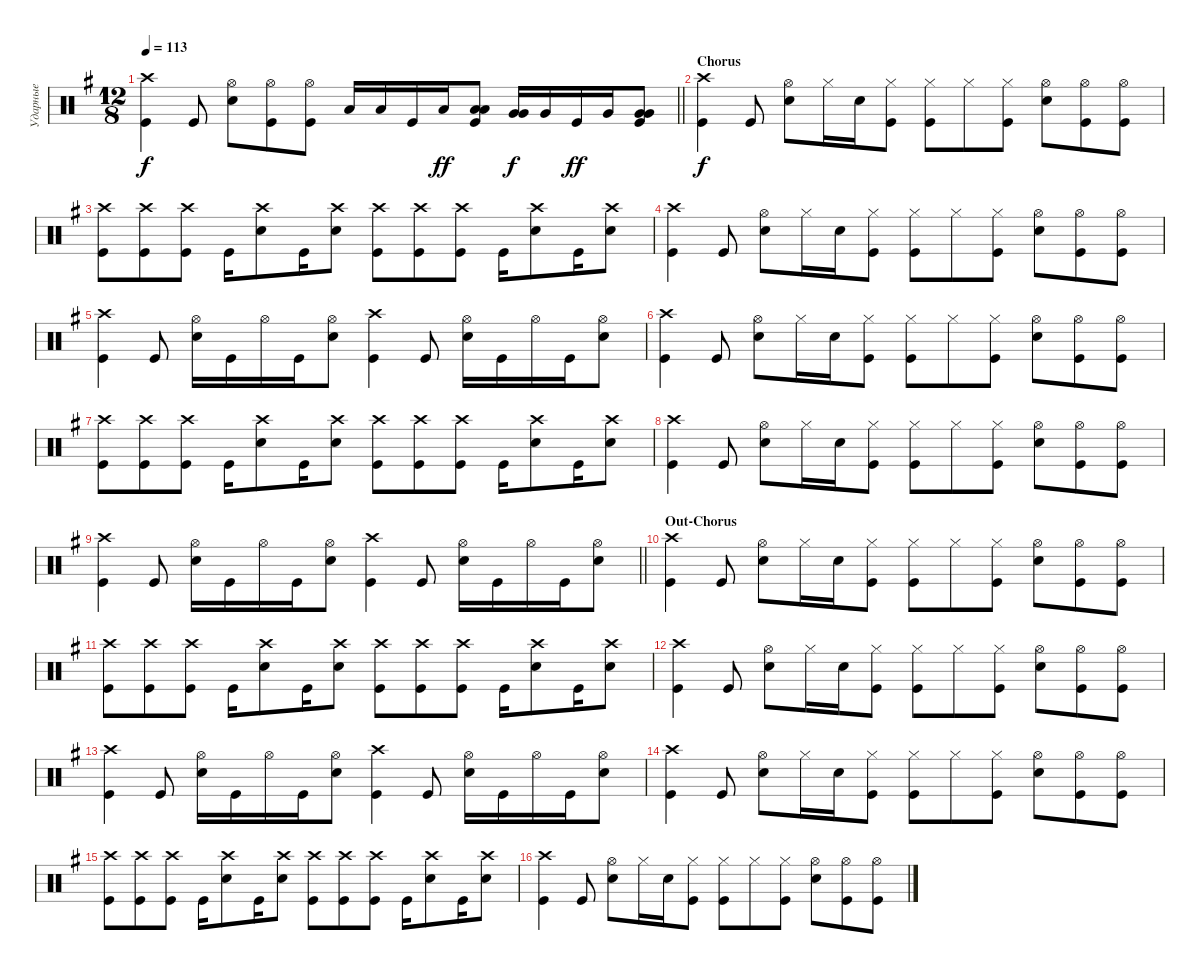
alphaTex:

\track ("Ударные" "Ударные") {instrument percussion}
\staff {score}
\articulation defaults
\ts (12 8)
\tempo 113
\clef neutral
\barLineRight lightlight
\ks eminor
("Kick (hit)" "Crash high (hit)").4{dy f} "Kick (hit)".8 ("Snare (hit) 2" "Hi-Hat (open)").8 ("Kick (hit)" "Hi-Hat (open)").8 ("Kick (hit)" "Hi-Hat (open)").8 "Low Tom (hit)".16 "Low Tom (hit)".16 "Kick (hit)".16 "Low Tom (hit)".16{dy ff} ("Low Tom (hit)" "Low Tom (hit)" "Kick (hit)").8{bd 120} ("Very Low Tom (hit)" "Very Low Tom (hit)").16{bd 120 dy f} "Very Low Tom (hit)".16 "Kick (hit)".16{dy ff} "Very Low Tom (hit)".16 ("Very Low Tom (hit)" "Very Low Tom (hit)" "Kick (hit)").8{bd 120} |
\section ("" "Chorus")
("Kick (hit)" "Crash high (hit)").4{dy f} "Kick (hit)".8 ("Snare (hit) 2" "Hi-Hat (open)").8 "Hi-Hat (closed)".16 "Snare (hit) 2".16 ("Kick (hit)" "Hi-Hat (closed)").8 ("Kick (hit)" "Hi-Hat (closed)").8 "Hi-Hat (closed)".8 ("Hi-Hat (closed)" "Kick (hit)").8 ("Snare (hit) 2" "Hi-Hat (open)").8 ("Hi-Hat (open)" "Kick (hit)").8 ("Hi-Hat (open)" "Kick (hit)").8 |
("Kick (hit)" "Crash high (hit)").8 ("Kick (hit)" "Crash high (hit)").8 ("Kick (hit)" "Crash high (hit)").8 "Kick (hit)".16 ("Snare (hit) 2" "Crash high (hit)").8 "Kick (hit)".16 ("Snare (hit) 2" "Crash high (hit)").8 ("Kick (hit)" "Crash high (hit)").8 ("Kick (hit)" "Crash high (hit)").8 ("Kick (hit)" "Crash high (hit)").8 "Kick (hit)".16 ("Snare (hit) 2" "Crash high (hit)").8 "Kick (hit)".16 ("Snare (hit) 2" "Crash high (hit)").8 |
("Kick (hit)" "Crash high (hit)").4 "Kick (hit)".8 ("Snare (hit) 2" "Hi-Hat (open)").8 "Hi-Hat (closed)".16 "Snare (hit) 2".16 ("Kick (hit)" "Hi-Hat (closed)").8 ("Kick (hit)" "Hi-Hat (closed)").8 "Hi-Hat (closed)".8 ("Hi-Hat (closed)" "Kick (hit)").8 ("Snare (hit) 2" "Hi-Hat (open)").8 ("Hi-Hat (open)" "Kick (hit)").8 ("Hi-Hat (open)" "Kick (hit)").8 |
("Kick (hit)" "Crash high (hit)").4 "Kick (hit)".8 ("Snare (hit) 2" "Hi-Hat (open)").16 "Kick (hit)".16 "Hi-Hat (open)".16 "Kick (hit)".16 ("Hi-Hat (open)" "Snare (hit) 2").8 ("Kick (hit)" "Crash high (hit)").4 "Kick (hit)".8 ("Snare (hit) 2" "Hi-Hat (open)").16 "Kick (hit)".16 "Hi-Hat (open)".16 "Kick (hit)".16 ("Hi-Hat (open)" "Snare (hit) 2").8 |
("Kick (hit)" "Crash high (hit)").4 "Kick (hit)".8 ("Snare (hit) 2" "Hi-Hat (open)").8 "Hi-Hat (closed)".16 "Snare (hit) 2".16 ("Kick (hit)" "Hi-Hat (closed)").8 ("Kick (hit)" "Hi-Hat (closed)").8 "Hi-Hat (closed)".8 ("Hi-Hat (closed)" "Kick (hit)").8 ("Snare (hit) 2" "Hi-Hat (open)").8 ("Hi-Hat (open)" "Kick (hit)").8 ("Hi-Hat (open)" "Kick (hit)").8 |
("Kick (hit)" "Crash high (hit)").8 ("Kick (hit)" "Crash high (hit)").8 ("Kick (hit)" "Crash high (hit)").8 "Kick (hit)".16 ("Snare (hit) 2" "Crash high (hit)").8 "Kick (hit)".16 ("Snare (hit) 2" "Crash high (hit)").8 ("Kick (hit)" "Crash high (hit)").8 ("Kick (hit)" "Crash high (hit)").8 ("Kick (hit)" "Crash high (hit)").8 "Kick (hit)".16 ("Snare (hit) 2" "Crash high (hit)").8 "Kick (hit)".16 ("Snare (hit) 2" "Crash high (hit)").8 |
("Kick (hit)" "Crash high (hit)").4 "Kick (hit)".8 ("Snare (hit) 2" "Hi-Hat (open)").8 "Hi-Hat (closed)".16 "Snare (hit) 2".16 ("Kick (hit)" "Hi-Hat (closed)").8 ("Kick (hit)" "Hi-Hat (closed)").8 "Hi-Hat (closed)".8 ("Hi-Hat (closed)" "Kick (hit)").8 ("Snare (hit) 2" "Hi-Hat (open)").8 ("Hi-Hat (open)" "Kick (hit)").8 ("Hi-Hat (open)" "Kick (hit)").8 |
\barLineRight lightlight
("Kick (hit)" "Crash high (hit)").4 "Kick (hit)".8 ("Snare (hit) 2" "Hi-Hat (open)").16 "Kick (hit)".16 "Hi-Hat (open)".16 "Kick (hit)".16 ("Hi-Hat (open)" "Snare (hit) 2").8 ("Kick (hit)" "Crash high (hit)").4 "Kick (hit)".8 ("Snare (hit) 2" "Hi-Hat (open)").16 "Kick (hit)".16 "Hi-Hat (open)".16 "Kick (hit)".16 ("Hi-Hat (open)" "Snare (hit) 2").8 |
\section ("" "Out-Chorus")
("Kick (hit)" "Crash high (hit)").4 "Kick (hit)".8 ("Snare (hit) 2" "Hi-Hat (open)").8 "Hi-Hat (closed)".16 "Snare (hit) 2".16 ("Kick (hit)" "Hi-Hat (closed)").8 ("Kick (hit)" "Hi-Hat (closed)").8 "Hi-Hat (closed)".8 ("Hi-Hat (closed)" "Kick (hit)").8 ("Snare (hit) 2" "Hi-Hat (open)").8 ("Hi-Hat (open)" "Kick (hit)").8 ("Hi-Hat (open)" "Kick (hit)").8 |
("Kick (hit)" "Crash high (hit)").8 ("Kick (hit)" "Crash high (hit)").8 ("Kick (hit)" "Crash high (hit)").8 "Kick (hit)".16 ("Snare (hit) 2" "Crash high (hit)").8 "Kick (hit)".16 ("Snare (hit) 2" "Crash high (hit)").8 ("Kick (hit)" "Crash high (hit)").8 ("Kick (hit)" "Crash high (hit)").8 ("Kick (hit)" "Crash high (hit)").8 "Kick (hit)".16 ("Snare (hit) 2" "Crash high (hit)").8 "Kick (hit)".16 ("Snare (hit) 2" "Crash high (hit)").8 |
("Kick (hit)" "Crash high (hit)").4 "Kick (hit)".8 ("Snare (hit) 2" "Hi-Hat (open)").8 "Hi-Hat (closed)".16 "Snare (hit) 2".16 ("Kick (hit)" "Hi-Hat (closed)").8 ("Kick (hit)" "Hi-Hat (closed)").8 "Hi-Hat (closed)".8 ("Hi-Hat (closed)" "Kick (hit)").8 ("Snare (hit) 2" "Hi-Hat (open)").8 ("Hi-Hat (open)" "Kick (hit)").8 ("Hi-Hat (open)" "Kick (hit)").8 |
("Kick (hit)" "Crash high (hit)").4 "Kick (hit)".8 ("Snare (hit) 2" "Hi-Hat (open)").16 "Kick (hit)".16 "Hi-Hat (open)".16 "Kick (hit)".16 ("Hi-Hat (open)" "Snare (hit) 2").8 ("Kick (hit)" "Crash high (hit)").4 "Kick (hit)".8 ("Snare (hit) 2" "Hi-Hat (open)").16 "Kick (hit)".16 "Hi-Hat (open)".16 "Kick (hit)".16 ("Hi-Hat (open)" "Snare (hit) 2").8 |
("Kick (hit)" "Crash high (hit)").4 "Kick (hit)".8 ("Snare (hit) 2" "Hi-Hat (open)").8 "Hi-Hat (closed)".16 "Snare (hit) 2".16 ("Kick (hit)" "Hi-Hat (closed)").8 ("Kick (hit)" "Hi-Hat (closed)").8 "Hi-Hat (closed)".8 ("Hi-Hat (closed)" "Kick (hit)").8 ("Snare (hit) 2" "Hi-Hat (open)").8 ("Hi-Hat (open)" "Kick (hit)").8 ("Hi-Hat (open)" "Kick (hit)").8 |
("Kick (hit)" "Crash high (hit)").8 ("Kick (hit)" "Crash high (hit)").8 ("Kick (hit)" "Crash high (hit)").8 "Kick (hit)".16 ("Snare (hit) 2" "Crash high (hit)").8 "Kick (hit)".16 ("Snare (hit) 2" "Crash high (hit)").8 ("Kick (hit)" "Crash high (hit)").8 ("Kick (hit)" "Crash high (hit)").8 ("Kick (hit)" "Crash high (hit)").8 "Kick (hit)".16 ("Snare (hit) 2" "Crash high (hit)").8 "Kick (hit)".16 ("Snare (hit) 2" "Crash high (hit)").8 |
("Kick (hit)" "Crash high (hit)").4 "Kick (hit)".8 ("Snare (hit) 2" "Hi-Hat (open)").8 "Hi-Hat (closed)".16 "Snare (hit) 2".16 ("Kick (hit)" "Hi-Hat (closed)").8 ("Kick (hit)" "Hi-Hat (closed)").8 "Hi-Hat (closed)".8 ("Hi-Hat (closed)" "Kick (hit)").8 ("Snare (hit) 2" "Hi-Hat (open)").8 ("Hi-Hat (open)" "Kick (hit)").8 ("Hi-Hat (open)" "Kick (hit)").8
